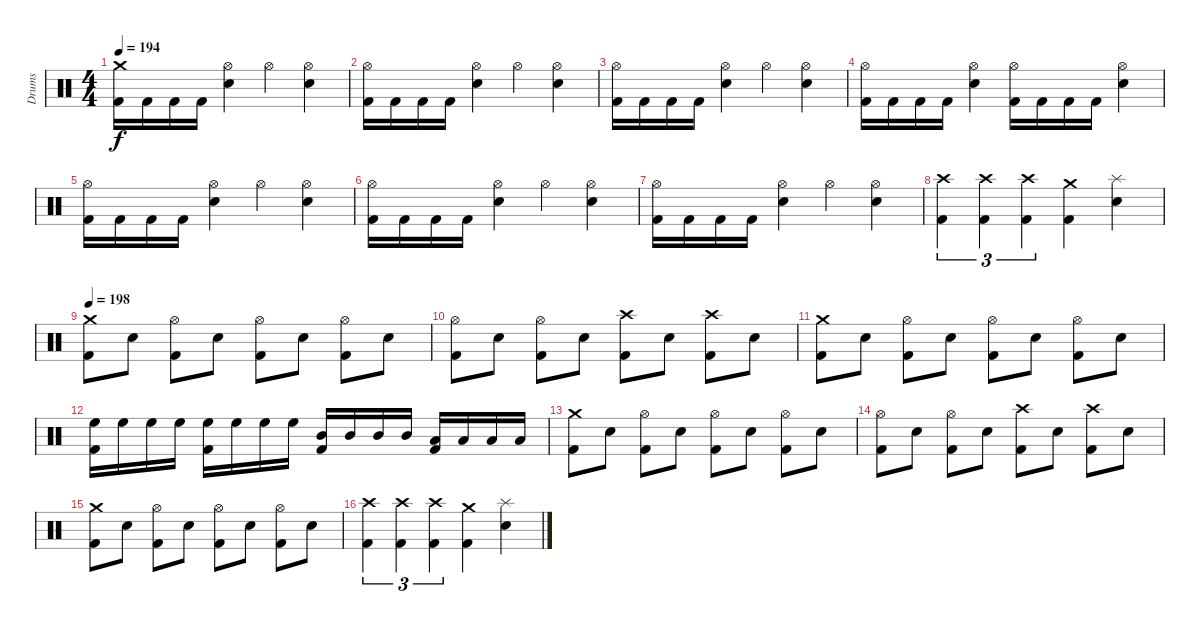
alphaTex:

\track ("Drums" "Drums") {instrument percussion}
\staff {score}
\articulation defaults
\ts (4 4)
\tempo 194
\clef neutral
\ks c
("Crash medium (hit)" "Kick (hit) 2").16{dy f} "Kick (hit) 2".16 "Kick (hit) 2".16 "Kick (hit) 2".16 ("Hi-Hat (open)" "Electric Snare (hit)").4 "Hi-Hat (open)".4 ("Hi-Hat (open)" "Electric Snare (hit)").4 |
("Hi-Hat (open)" "Kick (hit) 2").16 "Kick (hit) 2".16 "Kick (hit) 2".16 "Kick (hit) 2".16 ("Hi-Hat (open)" "Electric Snare (hit)").4 "Hi-Hat (open)".4 ("Hi-Hat (open)" "Electric Snare (hit)").4 |
("Hi-Hat (open)" "Kick (hit) 2").16 "Kick (hit) 2".16 "Kick (hit) 2".16 "Kick (hit) 2".16 ("Hi-Hat (open)" "Electric Snare (hit)").4 "Hi-Hat (open)".4 ("Hi-Hat (open)" "Electric Snare (hit)").4 |
("Hi-Hat (open)" "Kick (hit) 2").16 "Kick (hit) 2".16 "Kick (hit) 2".16 "Kick (hit) 2".16 ("Hi-Hat (open)" "Electric Snare (hit)").4 ("Hi-Hat (open)" "Kick (hit) 2").16 "Kick (hit) 2".16 "Kick (hit) 2".16 "Kick (hit) 2".16 ("Hi-Hat (open)" "Electric Snare (hit)").4 |
("Hi-Hat (open)" "Kick (hit) 2").16 "Kick (hit) 2".16 "Kick (hit) 2".16 "Kick (hit) 2".16 ("Hi-Hat (open)" "Electric Snare (hit)").4 "Hi-Hat (open)".4 ("Hi-Hat (open)" "Electric Snare (hit)").4 |
("Hi-Hat (open)" "Kick (hit) 2").16 "Kick (hit) 2".16 "Kick (hit) 2".16 "Kick (hit) 2".16 ("Hi-Hat (open)" "Electric Snare (hit)").4 "Hi-Hat (open)".4 ("Hi-Hat (open)" "Electric Snare (hit)").4 |
("Hi-Hat (open)" "Kick (hit) 2").16 "Kick (hit) 2".16 "Kick (hit) 2".16 "Kick (hit) 2".16 ("Hi-Hat (open)" "Electric Snare (hit)").4 "Hi-Hat (open)".4 ("Hi-Hat (open)" "Electric Snare (hit)").4 |
("Crash high (hit)" "Kick (hit) 2").4{tu (3 2)} ("Crash high (hit)" "Kick (hit) 2").4{tu (3 2)} ("Crash high (hit)" "Kick (hit) 2").4{tu (3 2)} ("Crash medium (hit)" "Kick (hit) 2").4 ("Splash (hit)" "Electric Snare (hit)").4 |
\tempo 198
("Crash medium (hit)" "Kick (hit) 2").8 "Electric Snare (hit)".8 ("Hi-Hat (open)" "Kick (hit) 2").8 "Electric Snare (hit)".8 ("Hi-Hat (open)" "Kick (hit) 2").8 "Electric Snare (hit)".8 ("Hi-Hat (open)" "Kick (hit) 2").8 "Electric Snare (hit)".8 |
("Hi-Hat (open)" "Kick (hit) 2").8 "Electric Snare (hit)".8 ("Hi-Hat (open)" "Kick (hit) 2").8 "Electric Snare (hit)".8 ("Crash high (hit)" "Kick (hit) 2").8 "Electric Snare (hit)".8 ("Crash high (hit)" "Kick (hit) 2").8 "Electric Snare (hit)".8 |
("Crash medium (hit)" "Kick (hit) 2").8 "Electric Snare (hit)".8 ("Hi-Hat (open)" "Kick (hit) 2").8 "Electric Snare (hit)".8 ("Hi-Hat (open)" "Kick (hit) 2").8 "Electric Snare (hit)".8 ("Hi-Hat (open)" "Kick (hit) 2").8 "Electric Snare (hit)".8 |
("High Floor Tom (hit)" "Kick (hit) 2").16 "High Floor Tom (hit)".16 "High Floor Tom (hit)".16 "High Floor Tom (hit)".16 ("High Floor Tom (hit)" "Kick (hit) 2").16 "High Floor Tom (hit)".16 "High Floor Tom (hit)".16 "High Floor Tom (hit)".16 ("Mid Tom (hit)" "Kick (hit) 2").16 "Mid Tom (hit)".16 "Mid Tom (hit)".16 "Mid Tom (hit)".16 ("Low Tom (hit)" "Kick (hit) 2").16 "Low Tom (hit)".16 "Low Tom (hit)".16 "Low Tom (hit)".16 |
("Crash medium (hit)" "Kick (hit) 2").8 "Electric Snare (hit)".8 ("Hi-Hat (open)" "Kick (hit) 2").8 "Electric Snare (hit)".8 ("Hi-Hat (open)" "Kick (hit) 2").8 "Electric Snare (hit)".8 ("Hi-Hat (open)" "Kick (hit) 2").8 "Electric Snare (hit)".8 |
("Hi-Hat (open)" "Kick (hit) 2").8 "Electric Snare (hit)".8 ("Hi-Hat (open)" "Kick (hit) 2").8 "Electric Snare (hit)".8 ("Crash high (hit)" "Kick (hit) 2").8 "Electric Snare (hit)".8 ("Crash high (hit)" "Kick (hit) 2").8 "Electric Snare (hit)".8 |
("Crash medium (hit)" "Kick (hit) 2").8 "Electric Snare (hit)".8 ("Hi-Hat (open)" "Kick (hit) 2").8 "Electric Snare (hit)".8 ("Hi-Hat (open)" "Kick (hit) 2").8 "Electric Snare (hit)".8 ("Hi-Hat (open)" "Kick (hit) 2").8 "Electric Snare (hit)".8 |
("Crash high (hit)" "Kick (hit) 2").4{tu (3 2)} ("Crash high (hit)" "Kick (hit) 2").4{tu (3 2)} ("Crash high (hit)" "Kick (hit) 2").4{tu (3 2)} ("Crash medium (hit)" "Kick (hit) 2").4 ("Splash (hit)" "Electric Snare (hit)").4
